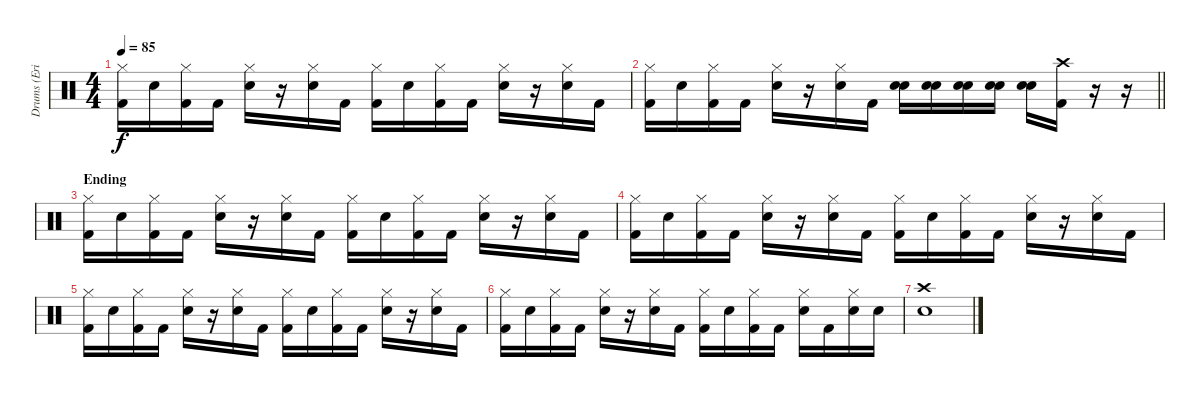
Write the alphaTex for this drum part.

\track ("Drums (Eric Kretz)" "Drums (Eri") {instrument percussion}
\staff {score}
\articulation defaults
\ts (4 4)
\tempo 85
\clef neutral
\ks c
("Hi-Hat (closed)" "Kick (hit) 2").16{dy f} "Electric Snare (hit)".16 ("Hi-Hat (closed)" "Kick (hit) 2").16 "Kick (hit) 2".16 ("Hi-Hat (closed)" "Electric Snare (hit)").16 r.16 ("Hi-Hat (closed)" "Electric Snare (hit)").16 "Kick (hit) 2".16 ("Hi-Hat (closed)" "Kick (hit) 2").16 "Electric Snare (hit)".16 ("Hi-Hat (closed)" "Kick (hit) 2").16 "Kick (hit) 2".16 ("Hi-Hat (closed)" "Electric Snare (hit)").16 r.16 ("Hi-Hat (closed)" "Electric Snare (hit)").16 "Kick (hit) 2".16 |
\barLineRight lightlight
("Hi-Hat (closed)" "Kick (hit) 2").16 "Electric Snare (hit)".16 ("Hi-Hat (closed)" "Kick (hit) 2").16 "Kick (hit) 2".16 ("Hi-Hat (closed)" "Electric Snare (hit)").16 r.16 ("Hi-Hat (closed)" "Electric Snare (hit)").16 "Kick (hit) 2".16 ("Snare (hit) 2" "Electric Snare (hit)").16 ("Snare (hit) 2" "Electric Snare (hit)").16 ("Snare (hit) 2" "Electric Snare (hit)").16 ("Snare (hit) 2" "Electric Snare (hit)").16 ("Snare (hit) 2" "Electric Snare (hit)").16 ("Crash high (hit)" "Kick (hit) 2").16 r.16 r.16 |
\section ("" "Ending")
("Hi-Hat (closed)" "Kick (hit) 2").16 "Electric Snare (hit)".16 ("Hi-Hat (closed)" "Kick (hit) 2").16 "Kick (hit) 2".16 ("Hi-Hat (closed)" "Electric Snare (hit)").16 r.16 ("Hi-Hat (closed)" "Electric Snare (hit)").16 "Kick (hit) 2".16 ("Hi-Hat (closed)" "Kick (hit) 2").16 "Electric Snare (hit)".16 ("Hi-Hat (closed)" "Kick (hit) 2").16 "Kick (hit) 2".16 ("Hi-Hat (closed)" "Electric Snare (hit)").16 r.16 ("Hi-Hat (closed)" "Electric Snare (hit)").16 "Kick (hit) 2".16 |
("Hi-Hat (closed)" "Kick (hit) 2").16 "Electric Snare (hit)".16 ("Hi-Hat (closed)" "Kick (hit) 2").16 "Kick (hit) 2".16 ("Hi-Hat (closed)" "Electric Snare (hit)").16 r.16 ("Hi-Hat (closed)" "Electric Snare (hit)").16 "Kick (hit) 2".16 ("Hi-Hat (closed)" "Kick (hit) 2").16 "Electric Snare (hit)".16 ("Hi-Hat (closed)" "Kick (hit) 2").16 "Kick (hit) 2".16 ("Hi-Hat (closed)" "Electric Snare (hit)").16 r.16 ("Hi-Hat (closed)" "Electric Snare (hit)").16 "Kick (hit) 2".16 |
("Hi-Hat (closed)" "Kick (hit) 2").16 "Electric Snare (hit)".16 ("Hi-Hat (closed)" "Kick (hit) 2").16 "Kick (hit) 2".16 ("Hi-Hat (closed)" "Electric Snare (hit)").16 r.16 ("Hi-Hat (closed)" "Electric Snare (hit)").16 "Kick (hit) 2".16 ("Hi-Hat (closed)" "Kick (hit) 2").16 "Electric Snare (hit)".16 ("Hi-Hat (closed)" "Kick (hit) 2").16 "Kick (hit) 2".16 ("Hi-Hat (closed)" "Electric Snare (hit)").16 r.16 ("Hi-Hat (closed)" "Electric Snare (hit)").16 "Kick (hit) 2".16 |
("Hi-Hat (closed)" "Kick (hit) 2").16 "Electric Snare (hit)".16 ("Hi-Hat (closed)" "Kick (hit) 2").16 "Kick (hit) 2".16 ("Hi-Hat (closed)" "Electric Snare (hit)").16 r.16 ("Hi-Hat (closed)" "Electric Snare (hit)").16 "Kick (hit) 2".16 ("Hi-Hat (closed)" "Kick (hit) 2").16 "Electric Snare (hit)".16 ("Hi-Hat (closed)" "Kick (hit) 2").16 "Kick (hit) 2".16 ("Hi-Hat (closed)" "Electric Snare (hit)").16 "Kick (hit) 2".16 ("Hi-Hat (closed)" "Electric Snare (hit)").16 "Electric Snare (hit)".16 |
("Crash high (hit)" "Electric Snare (hit)").1
